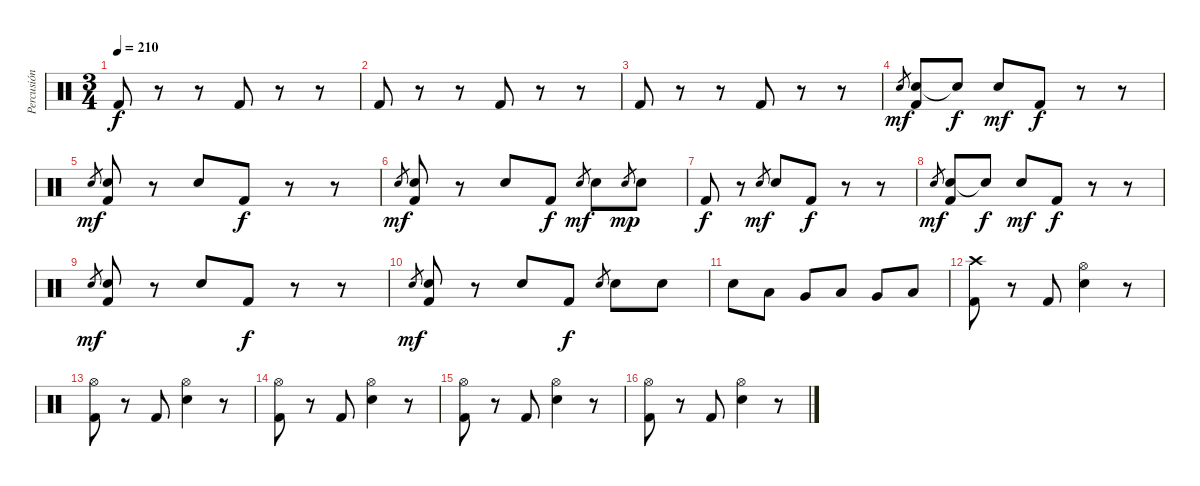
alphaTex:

\track ("Percusión" "Percusión") {instrument percussion}
\staff {score}
\articulation defaults
\ts (3 4)
\tempo 210
\clef neutral
\ks c "Kick (hit) 2".8{dy f}
r.8 r.8 "Kick (hit) 2".8 r.8 r.8 |
"Kick (hit) 2".8 r.8 r.8 "Kick (hit) 2".8 r.8 r.8 |
"Kick (hit) 2".8 r.8 r.8 "Kick (hit) 2".8 r.8 r.8 |
"Snare (hit) 2".8{gr dy mf} ("Snare (hit) 2" "Kick (hit) 2").8 "Snare (hit) 2"{t}.8{dy f} "Snare (hit) 2".8{dy mf} "Kick (hit) 2".8{dy f} r.8 r.8 |
"Snare (hit) 2".8{gr dy mf} ("Snare (hit) 2" "Kick (hit) 2").8 r.8 "Snare (hit) 2".8 "Kick (hit) 2".8{dy f} r.8 r.8 |
"Snare (hit) 2".8{gr dy mf} ("Snare (hit) 2" "Kick (hit) 2").8 r.8 "Snare (hit) 2".8 "Kick (hit) 2".8{dy f} "Snare (hit) 2".8{gr dy mf} "Snare (hit) 2".8 "Snare (hit) 2".8{gr dy mp} "Snare (hit) 2".8 |
"Kick (hit) 2".8{dy f} r.8 "Snare (hit) 2".8{gr dy mf} "Snare (hit) 2".8 "Kick (hit) 2".8{dy f} r.8 r.8 |
"Snare (hit) 2".8{gr dy mf} ("Snare (hit) 2" "Kick (hit) 2").8 "Snare (hit) 2"{t}.8{dy f} "Snare (hit) 2".8{dy mf} "Kick (hit) 2".8{dy f} r.8 r.8 |
"Snare (hit) 2".8{gr dy mf} ("Snare (hit) 2" "Kick (hit) 2").8 r.8 "Snare (hit) 2".8 "Kick (hit) 2".8{dy f} r.8 r.8 |
"Snare (hit) 2".8{gr dy mf} ("Snare (hit) 2" "Kick (hit) 2").8 r.8 "Snare (hit) 2".8 "Kick (hit) 2".8{dy f} "Snare (hit) 2".8{gr} "Snare (hit) 2".8 "Snare (hit) 2".8 |
"Snare (hit) 2".8 "Low Tom (hit)".8 "Very Low Tom (hit)".8 "Low Floor Tom (hit)".8 "Very Low Tom (hit)".8 "Low Tom (hit)".8 |
("Kick (hit) 2" "Crash high (hit)").8 r.8 "Kick (hit) 2".8 ("Electric Snare (hit)" "Hi-Hat (open)").4 r.8 |
("Kick (hit) 2" "Hi-Hat (open)").8 r.8 "Kick (hit) 2".8 ("Electric Snare (hit)" "Hi-Hat (open)").4 r.8 |
("Kick (hit) 2" "Hi-Hat (open)").8 r.8 "Kick (hit) 2".8 ("Electric Snare (hit)" "Hi-Hat (open)").4 r.8 |
("Kick (hit) 2" "Hi-Hat (open)").8 r.8 "Kick (hit) 2".8 ("Electric Snare (hit)" "Hi-Hat (open)").4 r.8 |
("Kick (hit) 2" "Hi-Hat (open)").8 r.8 "Kick (hit) 2".8 ("Electric Snare (hit)" "Hi-Hat (open)").4 r.8
